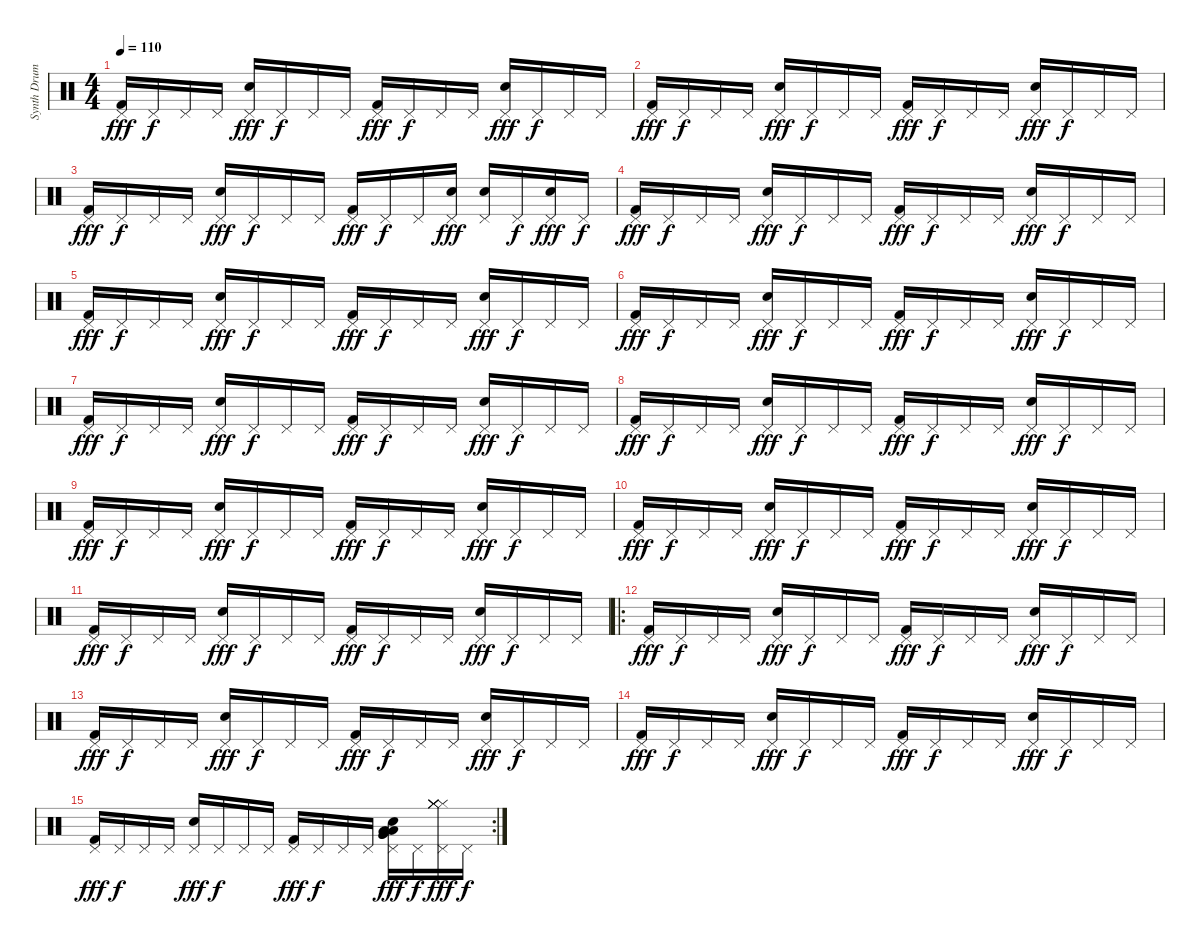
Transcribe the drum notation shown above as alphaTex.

\track ("Synth Drums" "Synth Drum") {instrument percussion}
\staff {score}
\articulation defaults
\ts (4 4)
\tempo 110
\clef neutral
\ks c
("Pedal Hi-Hat (hit)" "Kick (hit) 2").16{dy fff} "Pedal Hi-Hat (hit)".16{dy f} "Pedal Hi-Hat (hit)".16 "Pedal Hi-Hat (hit)".16 ("Pedal Hi-Hat (hit)" "Snare (hit) 2").16{dy fff} "Pedal Hi-Hat (hit)".16{dy f} "Pedal Hi-Hat (hit)".16 "Pedal Hi-Hat (hit)".16 ("Pedal Hi-Hat (hit)" "Kick (hit) 2").16{dy fff} "Pedal Hi-Hat (hit)".16{dy f} "Pedal Hi-Hat (hit)".16 "Pedal Hi-Hat (hit)".16 ("Pedal Hi-Hat (hit)" "Snare (hit) 2").16{dy fff} "Pedal Hi-Hat (hit)".16{dy f} "Pedal Hi-Hat (hit)".16 "Pedal Hi-Hat (hit)".16 |
("Pedal Hi-Hat (hit)" "Kick (hit) 2").16{dy fff} "Pedal Hi-Hat (hit)".16{dy f} "Pedal Hi-Hat (hit)".16 "Pedal Hi-Hat (hit)".16 ("Pedal Hi-Hat (hit)" "Snare (hit) 2").16{dy fff} "Pedal Hi-Hat (hit)".16{dy f} "Pedal Hi-Hat (hit)".16 "Pedal Hi-Hat (hit)".16 ("Pedal Hi-Hat (hit)" "Kick (hit) 2").16{dy fff} "Pedal Hi-Hat (hit)".16{dy f} "Pedal Hi-Hat (hit)".16 "Pedal Hi-Hat (hit)".16 ("Pedal Hi-Hat (hit)" "Snare (hit) 2").16{dy fff} "Pedal Hi-Hat (hit)".16{dy f} "Pedal Hi-Hat (hit)".16 "Pedal Hi-Hat (hit)".16 |
("Pedal Hi-Hat (hit)" "Kick (hit) 2").16{dy fff} "Pedal Hi-Hat (hit)".16{dy f} "Pedal Hi-Hat (hit)".16 "Pedal Hi-Hat (hit)".16 ("Pedal Hi-Hat (hit)" "Snare (hit) 2").16{dy fff} "Pedal Hi-Hat (hit)".16{dy f} "Pedal Hi-Hat (hit)".16 "Pedal Hi-Hat (hit)".16 ("Pedal Hi-Hat (hit)" "Kick (hit) 2").16{dy fff} "Pedal Hi-Hat (hit)".16{dy f} "Pedal Hi-Hat (hit)".16 ("Pedal Hi-Hat (hit)" "Snare (hit) 2").16{dy fff} ("Pedal Hi-Hat (hit)" "Snare (hit) 2").16 "Pedal Hi-Hat (hit)".16{dy f} ("Pedal Hi-Hat (hit)" "Snare (hit) 2").16{dy fff} "Pedal Hi-Hat (hit)".16{dy f} |
("Pedal Hi-Hat (hit)" "Kick (hit) 2").16{dy fff} "Pedal Hi-Hat (hit)".16{dy f} "Pedal Hi-Hat (hit)".16 "Pedal Hi-Hat (hit)".16 ("Pedal Hi-Hat (hit)" "Snare (hit) 2").16{dy fff} "Pedal Hi-Hat (hit)".16{dy f} "Pedal Hi-Hat (hit)".16 "Pedal Hi-Hat (hit)".16 ("Pedal Hi-Hat (hit)" "Kick (hit) 2").16{dy fff} "Pedal Hi-Hat (hit)".16{dy f} "Pedal Hi-Hat (hit)".16 "Pedal Hi-Hat (hit)".16 ("Pedal Hi-Hat (hit)" "Snare (hit) 2").16{dy fff} "Pedal Hi-Hat (hit)".16{dy f} "Pedal Hi-Hat (hit)".16 "Pedal Hi-Hat (hit)".16 |
("Pedal Hi-Hat (hit)" "Kick (hit) 2").16{dy fff} "Pedal Hi-Hat (hit)".16{dy f} "Pedal Hi-Hat (hit)".16 "Pedal Hi-Hat (hit)".16 ("Pedal Hi-Hat (hit)" "Snare (hit) 2").16{dy fff} "Pedal Hi-Hat (hit)".16{dy f} "Pedal Hi-Hat (hit)".16 "Pedal Hi-Hat (hit)".16 ("Pedal Hi-Hat (hit)" "Kick (hit) 2").16{dy fff} "Pedal Hi-Hat (hit)".16{dy f} "Pedal Hi-Hat (hit)".16 "Pedal Hi-Hat (hit)".16 ("Pedal Hi-Hat (hit)" "Snare (hit) 2").16{dy fff} "Pedal Hi-Hat (hit)".16{dy f} "Pedal Hi-Hat (hit)".16 "Pedal Hi-Hat (hit)".16 |
("Pedal Hi-Hat (hit)" "Kick (hit) 2").16{dy fff} "Pedal Hi-Hat (hit)".16{dy f} "Pedal Hi-Hat (hit)".16 "Pedal Hi-Hat (hit)".16 ("Pedal Hi-Hat (hit)" "Snare (hit) 2").16{dy fff} "Pedal Hi-Hat (hit)".16{dy f} "Pedal Hi-Hat (hit)".16 "Pedal Hi-Hat (hit)".16 ("Pedal Hi-Hat (hit)" "Kick (hit) 2").16{dy fff} "Pedal Hi-Hat (hit)".16{dy f} "Pedal Hi-Hat (hit)".16 "Pedal Hi-Hat (hit)".16 ("Pedal Hi-Hat (hit)" "Snare (hit) 2").16{dy fff} "Pedal Hi-Hat (hit)".16{dy f} "Pedal Hi-Hat (hit)".16 "Pedal Hi-Hat (hit)".16 |
("Pedal Hi-Hat (hit)" "Kick (hit) 2").16{dy fff} "Pedal Hi-Hat (hit)".16{dy f} "Pedal Hi-Hat (hit)".16 "Pedal Hi-Hat (hit)".16 ("Pedal Hi-Hat (hit)" "Snare (hit) 2").16{dy fff} "Pedal Hi-Hat (hit)".16{dy f} "Pedal Hi-Hat (hit)".16 "Pedal Hi-Hat (hit)".16 ("Pedal Hi-Hat (hit)" "Kick (hit) 2").16{dy fff} "Pedal Hi-Hat (hit)".16{dy f} "Pedal Hi-Hat (hit)".16 "Pedal Hi-Hat (hit)".16 ("Pedal Hi-Hat (hit)" "Snare (hit) 2").16{dy fff} "Pedal Hi-Hat (hit)".16{dy f} "Pedal Hi-Hat (hit)".16 "Pedal Hi-Hat (hit)".16 |
("Pedal Hi-Hat (hit)" "Kick (hit) 2").16{dy fff} "Pedal Hi-Hat (hit)".16{dy f} "Pedal Hi-Hat (hit)".16 "Pedal Hi-Hat (hit)".16 ("Pedal Hi-Hat (hit)" "Snare (hit) 2").16{dy fff} "Pedal Hi-Hat (hit)".16{dy f} "Pedal Hi-Hat (hit)".16 "Pedal Hi-Hat (hit)".16 ("Pedal Hi-Hat (hit)" "Kick (hit) 2").16{dy fff} "Pedal Hi-Hat (hit)".16{dy f} "Pedal Hi-Hat (hit)".16 "Pedal Hi-Hat (hit)".16 ("Pedal Hi-Hat (hit)" "Snare (hit) 2").16{dy fff} "Pedal Hi-Hat (hit)".16{dy f} "Pedal Hi-Hat (hit)".16 "Pedal Hi-Hat (hit)".16 |
("Pedal Hi-Hat (hit)" "Kick (hit) 2").16{dy fff} "Pedal Hi-Hat (hit)".16{dy f} "Pedal Hi-Hat (hit)".16 "Pedal Hi-Hat (hit)".16 ("Pedal Hi-Hat (hit)" "Snare (hit) 2").16{dy fff} "Pedal Hi-Hat (hit)".16{dy f} "Pedal Hi-Hat (hit)".16 "Pedal Hi-Hat (hit)".16 ("Pedal Hi-Hat (hit)" "Kick (hit) 2").16{dy fff} "Pedal Hi-Hat (hit)".16{dy f} "Pedal Hi-Hat (hit)".16 "Pedal Hi-Hat (hit)".16 ("Pedal Hi-Hat (hit)" "Snare (hit) 2").16{dy fff} "Pedal Hi-Hat (hit)".16{dy f} "Pedal Hi-Hat (hit)".16 "Pedal Hi-Hat (hit)".16 |
("Pedal Hi-Hat (hit)" "Kick (hit) 2").16{dy fff} "Pedal Hi-Hat (hit)".16{dy f} "Pedal Hi-Hat (hit)".16 "Pedal Hi-Hat (hit)".16 ("Pedal Hi-Hat (hit)" "Snare (hit) 2").16{dy fff} "Pedal Hi-Hat (hit)".16{dy f} "Pedal Hi-Hat (hit)".16 "Pedal Hi-Hat (hit)".16 ("Pedal Hi-Hat (hit)" "Kick (hit) 2").16{dy fff} "Pedal Hi-Hat (hit)".16{dy f} "Pedal Hi-Hat (hit)".16 "Pedal Hi-Hat (hit)".16 ("Pedal Hi-Hat (hit)" "Snare (hit) 2").16{dy fff} "Pedal Hi-Hat (hit)".16{dy f} "Pedal Hi-Hat (hit)".16 "Pedal Hi-Hat (hit)".16 |
("Pedal Hi-Hat (hit)" "Kick (hit) 2").16{dy fff} "Pedal Hi-Hat (hit)".16{dy f} "Pedal Hi-Hat (hit)".16 "Pedal Hi-Hat (hit)".16 ("Pedal Hi-Hat (hit)" "Snare (hit) 2").16{dy fff} "Pedal Hi-Hat (hit)".16{dy f} "Pedal Hi-Hat (hit)".16 "Pedal Hi-Hat (hit)".16 ("Pedal Hi-Hat (hit)" "Kick (hit) 2").16{dy fff} "Pedal Hi-Hat (hit)".16{dy f} "Pedal Hi-Hat (hit)".16 "Pedal Hi-Hat (hit)".16 ("Pedal Hi-Hat (hit)" "Snare (hit) 2").16{dy fff} "Pedal Hi-Hat (hit)".16{dy f} "Pedal Hi-Hat (hit)".16 "Pedal Hi-Hat (hit)".16 |
\ro
("Pedal Hi-Hat (hit)" "Kick (hit) 2").16{dy fff} "Pedal Hi-Hat (hit)".16{dy f} "Pedal Hi-Hat (hit)".16 "Pedal Hi-Hat (hit)".16 ("Pedal Hi-Hat (hit)" "Snare (hit) 2").16{dy fff} "Pedal Hi-Hat (hit)".16{dy f} "Pedal Hi-Hat (hit)".16 "Pedal Hi-Hat (hit)".16 ("Pedal Hi-Hat (hit)" "Kick (hit) 2").16{dy fff} "Pedal Hi-Hat (hit)".16{dy f} "Pedal Hi-Hat (hit)".16 "Pedal Hi-Hat (hit)".16 ("Pedal Hi-Hat (hit)" "Snare (hit) 2").16{dy fff} "Pedal Hi-Hat (hit)".16{dy f} "Pedal Hi-Hat (hit)".16 "Pedal Hi-Hat (hit)".16 |
("Pedal Hi-Hat (hit)" "Kick (hit) 2").16{dy fff} "Pedal Hi-Hat (hit)".16{dy f} "Pedal Hi-Hat (hit)".16 "Pedal Hi-Hat (hit)".16 ("Pedal Hi-Hat (hit)" "Snare (hit) 2").16{dy fff} "Pedal Hi-Hat (hit)".16{dy f} "Pedal Hi-Hat (hit)".16 "Pedal Hi-Hat (hit)".16 ("Pedal Hi-Hat (hit)" "Kick (hit) 2").16{dy fff} "Pedal Hi-Hat (hit)".16{dy f} "Pedal Hi-Hat (hit)".16 "Pedal Hi-Hat (hit)".16 ("Pedal Hi-Hat (hit)" "Snare (hit) 2").16{dy fff} "Pedal Hi-Hat (hit)".16{dy f} "Pedal Hi-Hat (hit)".16 "Pedal Hi-Hat (hit)".16 |
("Pedal Hi-Hat (hit)" "Kick (hit) 2").16{dy fff} "Pedal Hi-Hat (hit)".16{dy f} "Pedal Hi-Hat (hit)".16 "Pedal Hi-Hat (hit)".16 ("Pedal Hi-Hat (hit)" "Snare (hit) 2").16{dy fff} "Pedal Hi-Hat (hit)".16{dy f} "Pedal Hi-Hat (hit)".16 "Pedal Hi-Hat (hit)".16 ("Pedal Hi-Hat (hit)" "Kick (hit) 2").16{dy fff} "Pedal Hi-Hat (hit)".16{dy f} "Pedal Hi-Hat (hit)".16 "Pedal Hi-Hat (hit)".16 ("Pedal Hi-Hat (hit)" "Snare (hit) 2").16{dy fff} "Pedal Hi-Hat (hit)".16{dy f} "Pedal Hi-Hat (hit)".16 "Pedal Hi-Hat (hit)".16 |
\rc 2
("Pedal Hi-Hat (hit)" "Kick (hit) 2").16{dy fff} "Pedal Hi-Hat (hit)".16{dy f} "Pedal Hi-Hat (hit)".16 "Pedal Hi-Hat (hit)".16 ("Pedal Hi-Hat (hit)" "Snare (hit) 2").16{dy fff} "Pedal Hi-Hat (hit)".16{dy f} "Pedal Hi-Hat (hit)".16 "Pedal Hi-Hat (hit)".16 ("Pedal Hi-Hat (hit)" "Kick (hit) 2").16{dy fff} "Pedal Hi-Hat (hit)".16{dy f} "Pedal Hi-Hat (hit)".16 "Pedal Hi-Hat (hit)".16 ("Pedal Hi-Hat (hit)" "Snare (hit) 2" "Low Floor Tom (hit)" "Very Low Tom (hit)" "Low Floor Tom (hit)" "Very Low Tom (hit)").16{dy fff} "Pedal Hi-Hat (hit)".16{dy f} ("Pedal Hi-Hat (hit)" "Hi-Hat (closed)" "Hi-Hat (closed)" "Hi-Hat (closed)" "Hi-Hat (closed)" "Hi-Hat (closed)").16{dy fff} "Pedal Hi-Hat (hit)".16{dy f}
